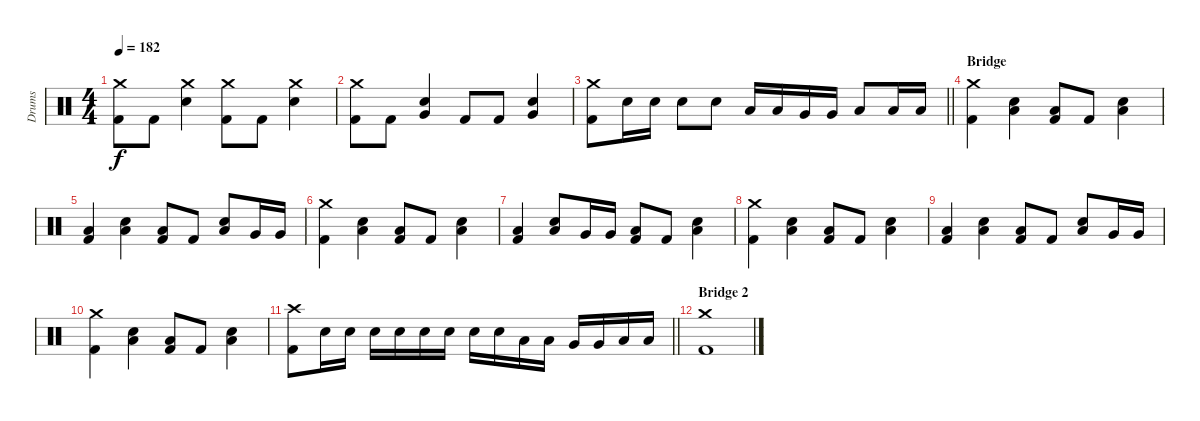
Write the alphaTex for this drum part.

\track ("Drums" "Drums") {instrument percussion}
\staff {score}
\articulation defaults
\ts (4 4)
\tempo 182
\clef neutral
\ks c
("Crash medium (hit)" "Kick (hit) 2").8{dy f} "Kick (hit) 2".8 ("Crash medium (hit)" "Electric Snare (hit)").4 ("Crash medium (hit)" "Kick (hit) 2").8 "Kick (hit) 2".8 ("Crash medium (hit)" "Electric Snare (hit)").4 |
("Crash medium (hit)" "Kick (hit) 2").8 "Kick (hit) 2".8 ("Very Low Tom (hit)" "Electric Snare (hit)").4 "Kick (hit) 2".8 "Kick (hit) 2".8 ("Very Low Tom (hit)" "Electric Snare (hit)").4 |
\barLineRight lightlight
("Crash medium (hit)" "Kick (hit) 2").8 "Electric Snare (hit)".16 "Electric Snare (hit)".16 "Electric Snare (hit)".8 "Electric Snare (hit)".8 "Low Tom (hit)".16 "Low Tom (hit)".16 "Very Low Tom (hit)".16 "Very Low Tom (hit)".16 "Low Floor Tom (hit)".8 "Low Floor Tom (hit)".16 "Low Floor Tom (hit)".16 |
\section ("" "Bridge")
("Crash medium (hit)" "Kick (hit) 2").4 ("Low Floor Tom (hit)" "Electric Snare (hit)").4 ("Low Floor Tom (hit)" "Kick (hit) 2").8 "Kick (hit) 2".8 ("Low Floor Tom (hit)" "Electric Snare (hit)").4 |
("Low Floor Tom (hit)" "Kick (hit) 2").4 ("Low Floor Tom (hit)" "Electric Snare (hit)").4 ("Low Floor Tom (hit)" "Kick (hit) 2").8 "Kick (hit) 2".8 ("Low Floor Tom (hit)" "Electric Snare (hit)").8 "Very Low Tom (hit)".16 "Very Low Tom (hit)".16 |
("Crash medium (hit)" "Kick (hit) 2").4 ("Low Floor Tom (hit)" "Electric Snare (hit)").4 ("Low Floor Tom (hit)" "Kick (hit) 2").8 "Kick (hit) 2".8 ("Low Floor Tom (hit)" "Electric Snare (hit)").4 |
("Low Floor Tom (hit)" "Kick (hit) 2").4 ("Low Floor Tom (hit)" "Electric Snare (hit)").8 "Very Low Tom (hit)".16 "Very Low Tom (hit)".16 ("Low Floor Tom (hit)" "Kick (hit) 2").8 "Kick (hit) 2".8 ("Low Floor Tom (hit)" "Electric Snare (hit)").4 |
("Crash medium (hit)" "Kick (hit) 2").4 ("Low Floor Tom (hit)" "Electric Snare (hit)").4 ("Low Floor Tom (hit)" "Kick (hit) 2").8 "Kick (hit) 2".8 ("Low Floor Tom (hit)" "Electric Snare (hit)").4 |
("Low Floor Tom (hit)" "Kick (hit) 2").4 ("Low Floor Tom (hit)" "Electric Snare (hit)").4 ("Low Floor Tom (hit)" "Kick (hit) 2").8 "Kick (hit) 2".8 ("Low Floor Tom (hit)" "Electric Snare (hit)").8 "Very Low Tom (hit)".16 "Very Low Tom (hit)".16 |
("Crash medium (hit)" "Kick (hit) 2").4 ("Low Floor Tom (hit)" "Electric Snare (hit)").4 ("Low Floor Tom (hit)" "Kick (hit) 2").8 "Kick (hit) 2".8 ("Low Floor Tom (hit)" "Electric Snare (hit)").4 |
\barLineRight lightlight
("Crash high (hit)" "Kick (hit) 2").8 "Electric Snare (hit)".16 "Electric Snare (hit)".16 "Electric Snare (hit)".16 "Electric Snare (hit)".16 "Electric Snare (hit)".16 "Electric Snare (hit)".16 "Electric Snare (hit)".16 "Electric Snare (hit)".16 "Low Tom (hit)".16 "Low Tom (hit)".16 "Very Low Tom (hit)".16 "Very Low Tom (hit)".16 "Low Floor Tom (hit)".16 "Low Floor Tom (hit)".16 |
\section ("" "Bridge 2")
("Crash medium (hit)" "Kick (hit) 2").1
